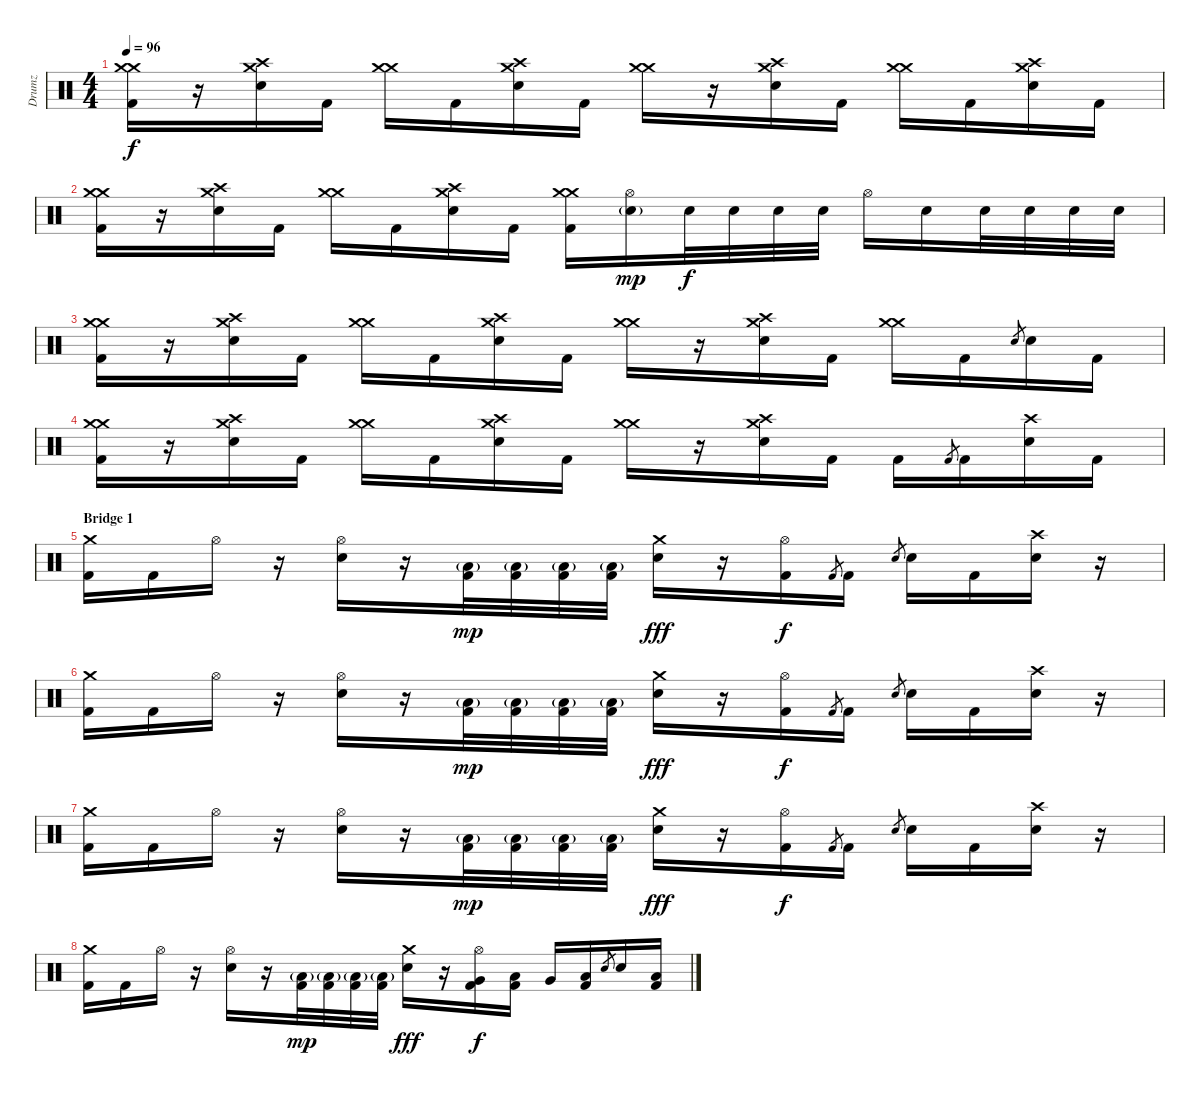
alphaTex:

\track ("Drumz" "Drumz") {instrument percussion}
\staff {score}
\articulation defaults
\ts (4 4)
\tempo 96
\clef neutral
\ks c
("Crash medium (hit)" "Crash medium (hit)" "Kick (hit) 2").16{dy f} r.16 ("Crash high (hit)" "Crash medium (hit)" "Electric Snare (hit)").16 "Kick (hit) 2".16 ("Crash medium (hit)" "Crash medium (hit)").16 "Kick (hit) 2".16 ("Crash high (hit)" "Crash medium (hit)" "Electric Snare (hit)").16 "Kick (hit) 2".16 ("Crash medium (hit)" "Crash medium (hit)").16 r.16 ("Crash high (hit)" "Crash medium (hit)" "Electric Snare (hit)").16 "Kick (hit) 2".16 ("Crash medium (hit)" "Crash medium (hit)").16 "Kick (hit) 2".16 ("Crash high (hit)" "Crash medium (hit)" "Electric Snare (hit)").16 "Kick (hit) 2".16 |
("Crash medium (hit)" "Crash medium (hit)" "Kick (hit) 2").16 r.16 ("Crash high (hit)" "Crash medium (hit)" "Electric Snare (hit)").16 "Kick (hit) 2".16 ("Crash medium (hit)" "Crash medium (hit)").16 "Kick (hit) 2".16 ("Crash high (hit)" "Crash medium (hit)" "Electric Snare (hit)").16 "Kick (hit) 2".16 ("Crash medium (hit)" "Crash medium (hit)" "Kick (hit) 2").16 ("Hi-Hat (open)" "Electric Snare (hit)"{g}).16{dy mp} "Electric Snare (hit)".32{dy f} "Electric Snare (hit)".32 "Electric Snare (hit)".32 "Electric Snare (hit)".32 "Hi-Hat (open)".16 "Electric Snare (hit)".16 "Electric Snare (hit)".32 "Electric Snare (hit)".32 "Electric Snare (hit)".32 "Electric Snare (hit)".32 |
("Crash medium (hit)" "Crash medium (hit)" "Kick (hit) 2").16 r.16 ("Crash high (hit)" "Crash medium (hit)" "Electric Snare (hit)").16 "Kick (hit) 2".16 ("Crash medium (hit)" "Crash medium (hit)").16 "Kick (hit) 2".16 ("Crash high (hit)" "Crash medium (hit)" "Electric Snare (hit)").16 "Kick (hit) 2".16 ("Crash medium (hit)" "Crash medium (hit)").16 r.16 ("Crash high (hit)" "Crash medium (hit)" "Electric Snare (hit)").16 "Kick (hit) 2".16 ("Crash medium (hit)" "Crash medium (hit)").16 "Kick (hit) 2".16 "Electric Snare (hit)".8{gr} "Electric Snare (hit)".16 "Kick (hit) 2".16 |
("Crash medium (hit)" "Crash medium (hit)" "Kick (hit) 2").16 r.16 ("Crash high (hit)" "Crash medium (hit)" "Electric Snare (hit)").16 "Kick (hit) 2".16 ("Crash medium (hit)" "Crash medium (hit)").16 "Kick (hit) 2".16 ("Crash high (hit)" "Crash medium (hit)" "Electric Snare (hit)").16 "Kick (hit) 2".16 ("Crash medium (hit)" "Crash medium (hit)").16 r.16 ("Crash high (hit)" "Crash medium (hit)" "Electric Snare (hit)").16 "Kick (hit) 2".16 "Kick (hit) 2".16 "Kick (hit) 2".8{gr} "Kick (hit) 2".16 ("Crash high (hit)" "Electric Snare (hit)").16 "Kick (hit) 2".16 |
\section ("" "Bridge 1")
("Crash medium (hit)" "Kick (hit) 2").16 "Kick (hit) 2".16 "Hi-Hat (open)".16 r.16 ("Hi-Hat (open)" "Electric Snare (hit)").16 r.16 ("Low Floor Tom (hit)"{g} "Kick (hit) 2").32{dy mp} ("Low Floor Tom (hit)"{g} "Kick (hit) 2").32 ("Low Floor Tom (hit)"{g} "Kick (hit) 2").32 ("Low Floor Tom (hit)"{g} "Kick (hit) 2").32 ("Crash medium (hit)" "Electric Snare (hit)").16{dy fff} r.16 ("Hi-Hat (open)" "Kick (hit) 2").16{dy f} "Kick (hit) 2".8{gr} "Kick (hit) 2".16 "Electric Snare (hit)".8{gr} "Electric Snare (hit)".16 "Kick (hit) 2".16 ("Crash high (hit)" "Electric Snare (hit)").16 r.16 |
("Crash medium (hit)" "Kick (hit) 2").16 "Kick (hit) 2".16 "Hi-Hat (open)".16 r.16 ("Hi-Hat (open)" "Electric Snare (hit)").16 r.16 ("Low Floor Tom (hit)"{g} "Kick (hit) 2").32{dy mp} ("Low Floor Tom (hit)"{g} "Kick (hit) 2").32 ("Low Floor Tom (hit)"{g} "Kick (hit) 2").32 ("Low Floor Tom (hit)"{g} "Kick (hit) 2").32 ("Crash medium (hit)" "Electric Snare (hit)").16{dy fff} r.16 ("Hi-Hat (open)" "Kick (hit) 2").16{dy f} "Kick (hit) 2".8{gr} "Kick (hit) 2".16 "Electric Snare (hit)".8{gr} "Electric Snare (hit)".16 "Kick (hit) 2".16 ("Crash high (hit)" "Electric Snare (hit)").16 r.16 |
("Crash medium (hit)" "Kick (hit) 2").16 "Kick (hit) 2".16 "Hi-Hat (open)".16 r.16 ("Hi-Hat (open)" "Electric Snare (hit)").16 r.16 ("Low Floor Tom (hit)"{g} "Kick (hit) 2").32{dy mp} ("Low Floor Tom (hit)"{g} "Kick (hit) 2").32 ("Low Floor Tom (hit)"{g} "Kick (hit) 2").32 ("Low Floor Tom (hit)"{g} "Kick (hit) 2").32 ("Crash medium (hit)" "Electric Snare (hit)").16{dy fff} r.16 ("Hi-Hat (open)" "Kick (hit) 2").16{dy f} "Kick (hit) 2".8{gr} "Kick (hit) 2".16 "Electric Snare (hit)".8{gr} "Electric Snare (hit)".16 "Kick (hit) 2".16 ("Crash high (hit)" "Electric Snare (hit)").16 r.16 |
("Crash medium (hit)" "Kick (hit) 2").16 "Kick (hit) 2".16 "Hi-Hat (open)".16 r.16 ("Hi-Hat (open)" "Electric Snare (hit)").16 r.16 ("Low Floor Tom (hit)"{g} "Kick (hit) 2").32{dy mp} ("Low Floor Tom (hit)"{g} "Kick (hit) 2").32 ("Low Floor Tom (hit)"{g} "Kick (hit) 2").32 ("Low Floor Tom (hit)"{g} "Kick (hit) 2").32 ("Crash medium (hit)" "Electric Snare (hit)").16{dy fff} r.16 ("Hi-Hat (open)" "Very Low Tom (hit)" "Kick (hit) 2").16{dy f} ("Low Floor Tom (hit)" "Kick (hit) 2").16 "Very Low Tom (hit)".16 ("Low Floor Tom (hit)" "Kick (hit) 2").16 "Electric Snare (hit)".8{gr} "Electric Snare (hit)".16 ("Low Floor Tom (hit)" "Kick (hit) 2").16
